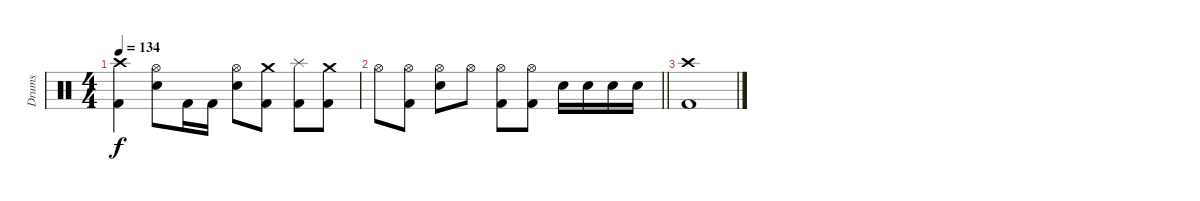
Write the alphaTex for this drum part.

\track ("Drums" "Drums") {instrument percussion}
\staff {score}
\articulation defaults
\ts (4 4)
\tempo 134
\clef neutral
\ks c
("Crash high (hit)" "Kick (hit) 2").4{dy f} ("Hi-Hat (open)" "Electric Snare (hit)").8 "Kick (hit) 2".16 "Kick (hit) 2".16 ("Hi-Hat (open)" "Electric Snare (hit)").8 ("Crash medium (hit)" "Kick (hit) 2").8 ("Splash (hit)" "Kick (hit) 2").8 ("Crash medium (hit)" "Kick (hit) 2").8 |
\barLineRight lightlight "Hi-Hat (open)".8
("Hi-Hat (open)" "Kick (hit) 2").8 ("Hi-Hat (open)" "Electric Snare (hit)").8 "Hi-Hat (open)".8 ("Hi-Hat (open)" "Kick (hit) 2").8 ("Hi-Hat (open)" "Kick (hit) 2").8 "Electric Snare (hit)".16 "Electric Snare (hit)".16 "Electric Snare (hit)".16 "Electric Snare (hit)".16 |
("Crash high (hit)" "Kick (hit) 2").1
